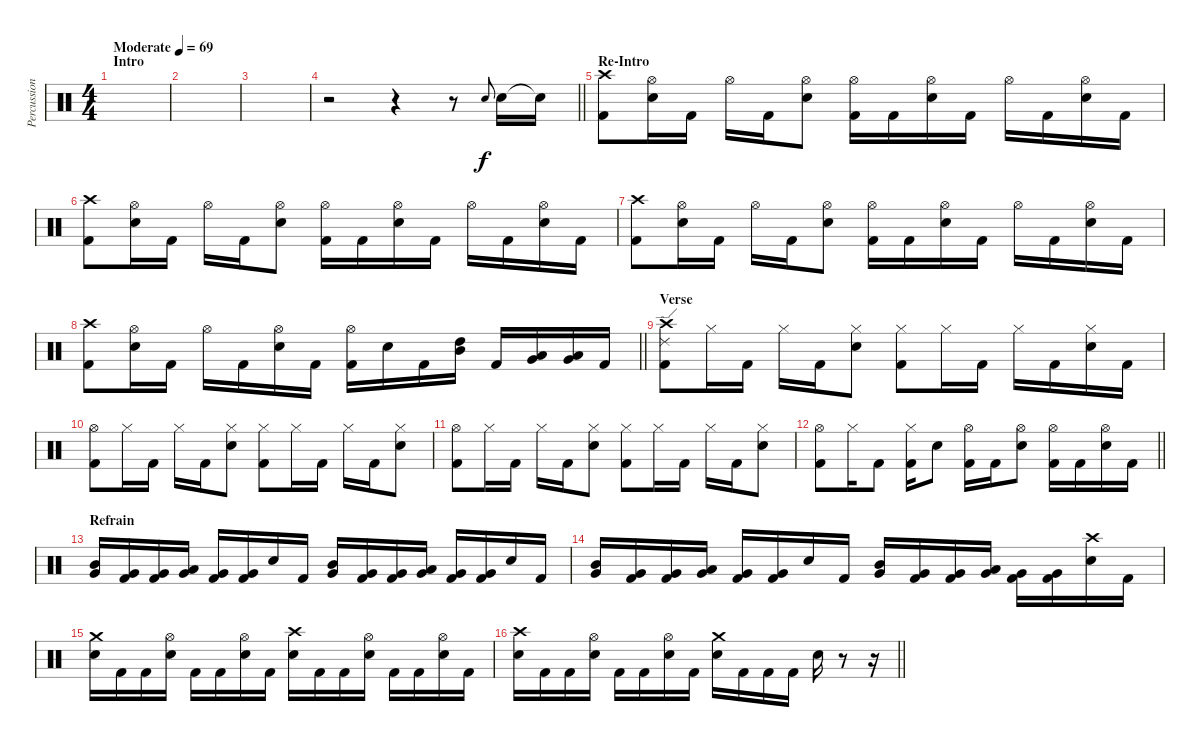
\track ("Percussion" "Percussion") {instrument percussion}
\staff {score}
\articulation defaults
\ts (4 4)
\section ("" "Intro")
\tempo (69 "Moderate")
\clef neutral
\ks c
|
|
|
\barLineRight lightlight
r.2 r.4 r.8 "Electric Snare (hit)".8{gr onbeat} "Electric Snare (hit)".16 "Snare (hit)"{t}.16 |
\section ("" "Re-Intro")
("Crash high (hit)" "Kick (hit) 2").8 ("Hi-Hat (open)" "Electric Snare (hit)").16 "Kick (hit) 2".16 "Hi-Hat (open)".16 "Kick (hit) 2".16 ("Hi-Hat (open)" "Electric Snare (hit)").8 ("Hi-Hat (open)" "Kick (hit) 2").16 "Kick (hit) 2".16 ("Hi-Hat (open)" "Electric Snare (hit)").16 "Kick (hit) 2".16 "Hi-Hat (open)".16 "Kick (hit) 2".16 ("Hi-Hat (open)" "Electric Snare (hit)").16 "Kick (hit) 2".16 |
("Crash high (hit)" "Kick (hit) 2").8 ("Hi-Hat (open)" "Electric Snare (hit)").16 "Kick (hit) 2".16 "Hi-Hat (open)".16 "Kick (hit) 2".16 ("Hi-Hat (open)" "Electric Snare (hit)").8 ("Hi-Hat (open)" "Kick (hit) 2").16 "Kick (hit) 2".16 ("Hi-Hat (open)" "Electric Snare (hit)").16 "Kick (hit) 2".16 "Hi-Hat (open)".16 "Kick (hit) 2".16 ("Hi-Hat (open)" "Electric Snare (hit)").16 "Kick (hit) 2".16 |
("Crash high (hit)" "Kick (hit) 2").8 ("Hi-Hat (open)" "Electric Snare (hit)").16 "Kick (hit) 2".16 "Hi-Hat (open)".16 "Kick (hit) 2".16 ("Hi-Hat (open)" "Electric Snare (hit)").8 ("Hi-Hat (open)" "Kick (hit) 2").16 "Kick (hit) 2".16 ("Hi-Hat (open)" "Electric Snare (hit)").16 "Kick (hit) 2".16 "Hi-Hat (open)".16 "Kick (hit) 2".16 ("Hi-Hat (open)" "Electric Snare (hit)").16 "Kick (hit) 2".16 |
\barLineRight lightlight
("Crash high (hit)" "Kick (hit) 2").8 ("Hi-Hat (open)" "Electric Snare (hit)").16 "Kick (hit) 2".16 "Hi-Hat (open)".16 "Kick (hit) 2".16 ("Hi-Hat (open)" "Electric Snare (hit)").16 "Kick (hit) 2".16 ("Hi-Hat (open)" "Kick (hit) 2").16 "Electric Snare (hit)".16 "Kick (hit) 2".16 ("High Tom (hit)" "Mid Tom (hit)").16 "Kick (hit) 2".16 ("Low Tom (hit)" "Very Low Tom (hit)").16 ("Low Tom (hit)" "Very Low Tom (hit)").16 "Kick (hit) 2".16 |
\section ("" "Verse")
("Crash high (hit)" "Ride (edge) 2" "Kick (hit) 2").8 "Hi-Hat (closed)".16 "Kick (hit) 2".16 "Hi-Hat (closed)".16 "Kick (hit) 2".16 ("Hi-Hat (closed)" "Electric Snare (hit)").8 ("Hi-Hat (closed)" "Kick (hit) 2").8 "Hi-Hat (closed)".16 "Kick (hit) 2".16 "Hi-Hat (closed)".16 "Kick (hit) 2".16 ("Hi-Hat (closed)" "Electric Snare (hit)").16 "Kick (hit) 2".16 |
("Hi-Hat (open)" "Kick (hit) 2").8 "Hi-Hat (closed)".16 "Kick (hit) 2".16 "Hi-Hat (closed)".16 "Kick (hit) 2".16 ("Hi-Hat (closed)" "Electric Snare (hit)").8 ("Hi-Hat (closed)" "Kick (hit) 2").8 "Hi-Hat (closed)".16 "Kick (hit) 2".16 "Hi-Hat (closed)".16 "Kick (hit) 2".16 ("Hi-Hat (closed)" "Electric Snare (hit)").8 |
("Hi-Hat (open)" "Kick (hit) 2").8 "Hi-Hat (closed)".16 "Kick (hit) 2".16 "Hi-Hat (closed)".16 "Kick (hit) 2".16 ("Hi-Hat (closed)" "Electric Snare (hit)").8 ("Hi-Hat (closed)" "Kick (hit) 2").8 "Hi-Hat (closed)".16 "Kick (hit) 2".16 "Hi-Hat (closed)".16 "Kick (hit) 2".16 ("Hi-Hat (closed)" "Electric Snare (hit)").8 |
\barLineRight lightlight
("Hi-Hat (open)" "Kick (hit) 2").8 "Hi-Hat (closed)".16 "Kick (hit) 2".8 ("Hi-Hat (closed)" "Kick (hit) 2").16 "Electric Snare (hit)".8 ("Hi-Hat (open)" "Kick (hit) 2").16 "Kick (hit) 2".16 ("Hi-Hat (open)" "Electric Snare (hit)").8 ("Hi-Hat (open)" "Kick (hit) 2").16 "Kick (hit) 2".16 ("Hi-Hat (open)" "Electric Snare (hit)").16 "Kick (hit) 2".16 |
\section ("" "Refrain")
("Very Low Tom (hit)" "Mid Tom (hit)").16 ("Very Low Tom (hit)" "Kick (hit) 2").16 ("Very Low Tom (hit)" "Kick (hit) 2").16 ("Very Low Tom (hit)" "Low Tom (hit)").16 ("Very Low Tom (hit)" "Kick (hit) 2").16 ("Very Low Tom (hit)" "Kick (hit) 2").16 "Electric Snare (hit)".16 "Kick (hit) 2".16 ("Very Low Tom (hit)" "Mid Tom (hit)").16 ("Very Low Tom (hit)" "Kick (hit) 2").16 ("Very Low Tom (hit)" "Kick (hit) 2").16 ("Very Low Tom (hit)" "Low Tom (hit)").16 ("Very Low Tom (hit)" "Kick (hit) 2").16 ("Very Low Tom (hit)" "Kick (hit) 2").16 "Electric Snare (hit)".16 "Kick (hit) 2".16 |
("Very Low Tom (hit)" "Mid Tom (hit)").16 ("Very Low Tom (hit)" "Kick (hit) 2").16 ("Very Low Tom (hit)" "Kick (hit) 2").16 ("Very Low Tom (hit)" "Low Tom (hit)").16 ("Very Low Tom (hit)" "Kick (hit) 2").16 ("Very Low Tom (hit)" "Kick (hit) 2").16 "Electric Snare (hit)".16 "Kick (hit) 2".16 ("Very Low Tom (hit)" "Mid Tom (hit)").16 ("Very Low Tom (hit)" "Kick (hit) 2").16 ("Very Low Tom (hit)" "Kick (hit) 2").16 ("Very Low Tom (hit)" "Low Tom (hit)").16 ("Very Low Tom (hit)" "Kick (hit) 2").16 ("Very Low Tom (hit)" "Kick (hit) 2").16 ("Crash high (hit)" "Electric Snare (hit)").16 "Kick (hit) 2".16 |
("Crash medium (hit)" "Electric Snare (hit)").16 "Kick (hit) 2".16 "Kick (hit) 2".16 ("Hi-Hat (open)" "Electric Snare (hit)").16 "Kick (hit) 2".16 "Kick (hit) 2".16 ("Hi-Hat (open)" "Electric Snare (hit)").16 "Kick (hit) 2".16 ("Crash high (hit)" "Electric Snare (hit)").16 "Kick (hit) 2".16 "Kick (hit) 2".16 ("Hi-Hat (open)" "Electric Snare (hit)").16 "Kick (hit) 2".16 "Kick (hit) 2".16 ("Hi-Hat (open)" "Electric Snare (hit)").16 "Kick (hit) 2".16 |
\barLineRight lightlight
("Crash high (hit)" "Electric Snare (hit)").16 "Kick (hit) 2".16 "Kick (hit) 2".16 ("Hi-Hat (open)" "Electric Snare (hit)").16 "Kick (hit) 2".16 "Kick (hit) 2".16 ("Hi-Hat (open)" "Electric Snare (hit)").16 "Kick (hit) 2".16 ("Crash medium (hit)" "Electric Snare (hit)").16 "Kick (hit) 2".16 "Kick (hit) 2".16 "Kick (hit) 2".16 "Electric Snare (hit)".16 r.8 r.16
